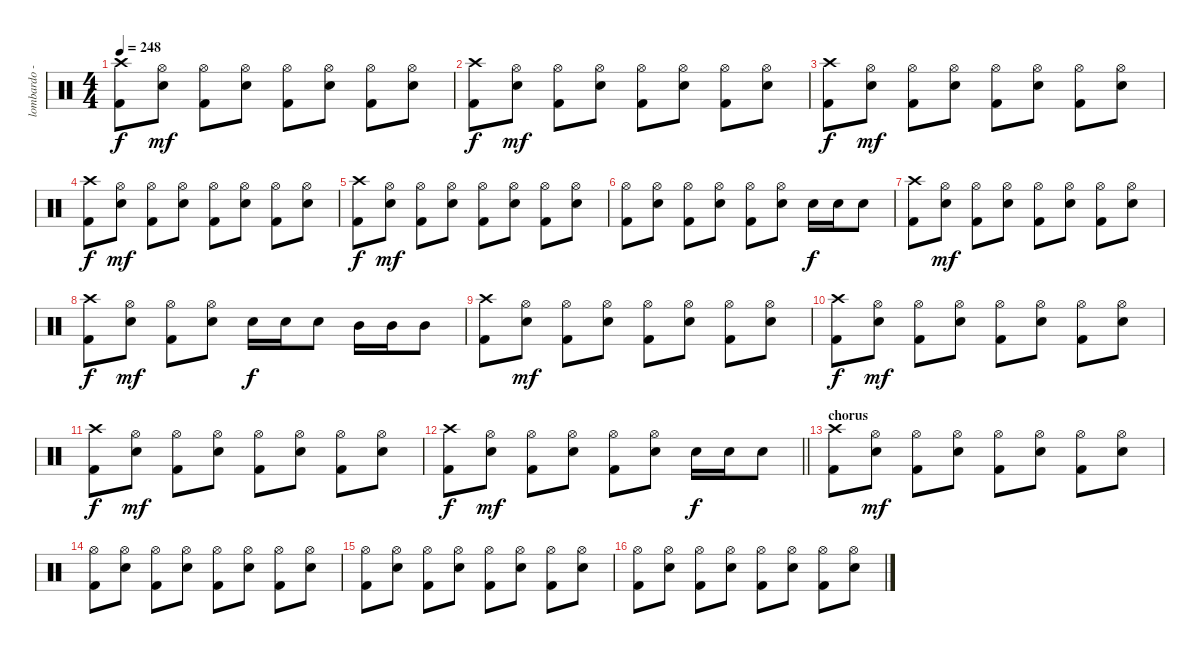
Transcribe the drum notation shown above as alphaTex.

\track ("lombardo - drums" "lombardo -") {instrument percussion}
\staff {score}
\articulation defaults
\ts (4 4)
\tempo 248
\clef neutral
\ks c
("Crash high (hit)" "Kick (hit) 2").8{dy f} ("Hi-Hat (open)" "Snare (hit) 2").8{dy mf} ("Hi-Hat (open)" "Kick (hit) 2").8 ("Hi-Hat (open)" "Snare (hit) 2").8 ("Hi-Hat (open)" "Kick (hit) 2").8 ("Hi-Hat (open)" "Snare (hit) 2").8 ("Hi-Hat (open)" "Kick (hit) 2").8 ("Hi-Hat (open)" "Snare (hit) 2").8 |
("Crash high (hit)" "Kick (hit) 2").8{dy f} ("Hi-Hat (open)" "Snare (hit) 2").8{dy mf} ("Hi-Hat (open)" "Kick (hit) 2").8 ("Hi-Hat (open)" "Snare (hit) 2").8 ("Hi-Hat (open)" "Kick (hit) 2").8 ("Hi-Hat (open)" "Snare (hit) 2").8 ("Hi-Hat (open)" "Kick (hit) 2").8 ("Hi-Hat (open)" "Snare (hit) 2").8 |
("Crash high (hit)" "Kick (hit) 2").8{dy f} ("Hi-Hat (open)" "Snare (hit) 2").8{dy mf} ("Hi-Hat (open)" "Kick (hit) 2").8 ("Hi-Hat (open)" "Snare (hit) 2").8 ("Hi-Hat (open)" "Kick (hit) 2").8 ("Hi-Hat (open)" "Snare (hit) 2").8 ("Hi-Hat (open)" "Kick (hit) 2").8 ("Hi-Hat (open)" "Snare (hit) 2").8 |
("Crash high (hit)" "Kick (hit) 2").8{dy f} ("Hi-Hat (open)" "Snare (hit) 2").8{dy mf} ("Hi-Hat (open)" "Kick (hit) 2").8 ("Hi-Hat (open)" "Snare (hit) 2").8 ("Hi-Hat (open)" "Kick (hit) 2").8 ("Hi-Hat (open)" "Snare (hit) 2").8 ("Hi-Hat (open)" "Kick (hit) 2").8 ("Hi-Hat (open)" "Snare (hit) 2").8 |
("Crash high (hit)" "Kick (hit) 2").8{dy f} ("Hi-Hat (open)" "Snare (hit) 2").8{dy mf} ("Hi-Hat (open)" "Kick (hit) 2").8 ("Hi-Hat (open)" "Snare (hit) 2").8 ("Hi-Hat (open)" "Kick (hit) 2").8 ("Hi-Hat (open)" "Snare (hit) 2").8 ("Hi-Hat (open)" "Kick (hit) 2").8 ("Hi-Hat (open)" "Snare (hit) 2").8 |
("Hi-Hat (open)" "Kick (hit) 2").8 ("Hi-Hat (open)" "Snare (hit) 2").8 ("Hi-Hat (open)" "Kick (hit) 2").8 ("Hi-Hat (open)" "Snare (hit) 2").8 ("Hi-Hat (open)" "Kick (hit) 2").8 ("Hi-Hat (open)" "Snare (hit) 2").8 "Snare (hit) 2".16{dy f} "Snare (hit) 2".16 "Snare (hit) 2".8 |
("Crash high (hit)" "Kick (hit) 2").8 ("Hi-Hat (open)" "Snare (hit) 2").8{dy mf} ("Hi-Hat (open)" "Kick (hit) 2").8 ("Hi-Hat (open)" "Snare (hit) 2").8 ("Hi-Hat (open)" "Kick (hit) 2").8 ("Hi-Hat (open)" "Snare (hit) 2").8 ("Hi-Hat (open)" "Kick (hit) 2").8 ("Hi-Hat (open)" "Snare (hit) 2").8 |
("Crash high (hit)" "Kick (hit) 2").8{dy f} ("Hi-Hat (open)" "Snare (hit) 2").8{dy mf} ("Hi-Hat (open)" "Kick (hit) 2").8 ("Hi-Hat (open)" "Snare (hit) 2").8 "Snare (hit) 2".16{dy f} "Snare (hit) 2".16 "Snare (hit) 2".8 "Mid Tom (hit)".16 "Mid Tom (hit)".16 "Mid Tom (hit)".8 |
("Crash high (hit)" "Kick (hit) 2").8 ("Hi-Hat (open)" "Snare (hit) 2").8{dy mf} ("Hi-Hat (open)" "Kick (hit) 2").8 ("Hi-Hat (open)" "Snare (hit) 2").8 ("Hi-Hat (open)" "Kick (hit) 2").8 ("Hi-Hat (open)" "Snare (hit) 2").8 ("Hi-Hat (open)" "Kick (hit) 2").8 ("Hi-Hat (open)" "Snare (hit) 2").8 |
("Crash high (hit)" "Kick (hit) 2").8{dy f} ("Hi-Hat (open)" "Snare (hit) 2").8{dy mf} ("Hi-Hat (open)" "Kick (hit) 2").8 ("Hi-Hat (open)" "Snare (hit) 2").8 ("Hi-Hat (open)" "Kick (hit) 2").8 ("Hi-Hat (open)" "Snare (hit) 2").8 ("Hi-Hat (open)" "Kick (hit) 2").8 ("Hi-Hat (open)" "Snare (hit) 2").8 |
("Crash high (hit)" "Kick (hit) 2").8{dy f} ("Hi-Hat (open)" "Snare (hit) 2").8{dy mf} ("Hi-Hat (open)" "Kick (hit) 2").8 ("Hi-Hat (open)" "Snare (hit) 2").8 ("Hi-Hat (open)" "Kick (hit) 2").8 ("Hi-Hat (open)" "Snare (hit) 2").8 ("Hi-Hat (open)" "Kick (hit) 2").8 ("Hi-Hat (open)" "Snare (hit) 2").8 |
\barLineRight lightlight
("Crash high (hit)" "Kick (hit) 2").8{dy f} ("Hi-Hat (open)" "Snare (hit) 2").8{dy mf} ("Hi-Hat (open)" "Kick (hit) 2").8 ("Hi-Hat (open)" "Snare (hit) 2").8 ("Hi-Hat (open)" "Kick (hit) 2").8 ("Hi-Hat (open)" "Snare (hit) 2").8 "Snare (hit) 2".16{dy f} "Snare (hit) 2".16 "Snare (hit) 2".8 |
\section ("" "chorus")
("Crash high (hit)" "Kick (hit) 2").8 ("Hi-Hat (open)" "Snare (hit) 2").8{dy mf} ("Hi-Hat (open)" "Kick (hit) 2").8 ("Hi-Hat (open)" "Snare (hit) 2").8 ("Hi-Hat (open)" "Kick (hit) 2").8 ("Hi-Hat (open)" "Snare (hit) 2").8 ("Hi-Hat (open)" "Kick (hit) 2").8 ("Hi-Hat (open)" "Snare (hit) 2").8 |
("Hi-Hat (open)" "Kick (hit) 2").8 ("Hi-Hat (open)" "Snare (hit) 2").8 ("Hi-Hat (open)" "Kick (hit) 2").8 ("Hi-Hat (open)" "Snare (hit) 2").8 ("Hi-Hat (open)" "Kick (hit) 2").8 ("Hi-Hat (open)" "Snare (hit) 2").8 ("Hi-Hat (open)" "Kick (hit) 2").8 ("Hi-Hat (open)" "Snare (hit) 2").8 |
("Hi-Hat (open)" "Kick (hit) 2").8 ("Hi-Hat (open)" "Snare (hit) 2").8 ("Hi-Hat (open)" "Kick (hit) 2").8 ("Hi-Hat (open)" "Snare (hit) 2").8 ("Hi-Hat (open)" "Kick (hit) 2").8 ("Hi-Hat (open)" "Snare (hit) 2").8 ("Hi-Hat (open)" "Kick (hit) 2").8 ("Hi-Hat (open)" "Snare (hit) 2").8 |
("Hi-Hat (open)" "Kick (hit) 2").8 ("Hi-Hat (open)" "Snare (hit) 2").8 ("Hi-Hat (open)" "Kick (hit) 2").8 ("Hi-Hat (open)" "Snare (hit) 2").8 ("Hi-Hat (open)" "Kick (hit) 2").8 ("Hi-Hat (open)" "Snare (hit) 2").8 ("Hi-Hat (open)" "Kick (hit) 2").8 ("Hi-Hat (open)" "Snare (hit) 2").8
